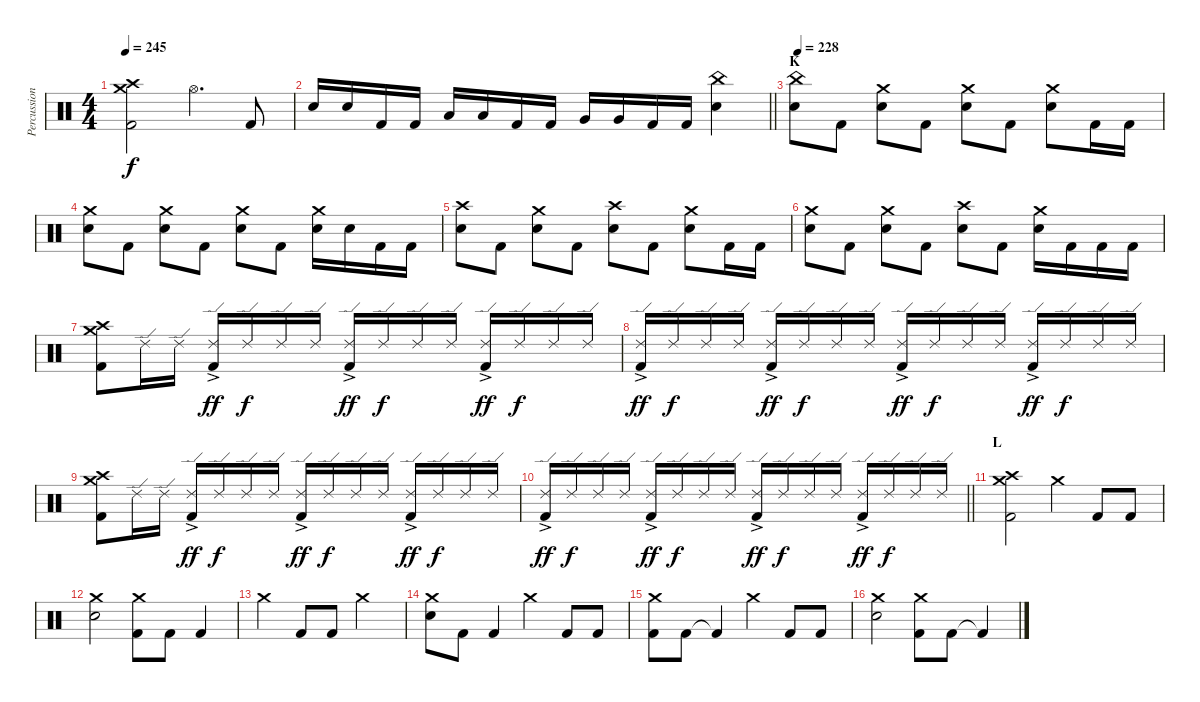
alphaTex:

\track ("Percussion" "Percussion") {instrument percussion}
\staff {score}
\articulation defaults
\ts (4 4)
\tempo 245
\clef neutral
\ks c
("Crash medium (hit)" "Crash high (hit)" "Kick (hit) 2").2{dy f} "Hi-Hat (open)".4{d} "Kick (hit) 2".8 |
\barLineRight lightlight "Electric Snare (hit)".16 "Electric Snare (hit)".16 "Kick (hit) 2".16 "Kick (hit) 2".16 "Low Tom (hit)".16 "Low Tom (hit)".16 "Kick (hit) 2".16 "Kick (hit) 2".16 "Very Low Tom (hit)".16 "Very Low Tom (hit)".16 "Kick (hit) 2".16 "Kick (hit) 2".16
("China (hit)" "Electric Snare (hit)").4 |
\section ("" "K")
\tempo 228
("China (hit)" "Electric Snare (hit)").8 "Kick (hit) 2".8 ("Crash medium (hit)" "Electric Snare (hit)").8 "Kick (hit) 2".8 ("Crash medium (hit)" "Electric Snare (hit)").8 "Kick (hit) 2".8 ("Crash medium (hit)" "Electric Snare (hit)").8 "Kick (hit) 2".16 "Kick (hit) 2".16 |
("Crash medium (hit)" "Electric Snare (hit)").8 "Kick (hit) 2".8 ("Crash medium (hit)" "Electric Snare (hit)").8 "Kick (hit) 2".8 ("Crash medium (hit)" "Electric Snare (hit)").8 "Kick (hit) 2".8 ("Crash medium (hit)" "Electric Snare (hit)").16 "Electric Snare (hit)".16 "Kick (hit) 2".16 "Kick (hit) 2".16 |
("Crash high (hit)" "Electric Snare (hit)").8 "Kick (hit) 2".8 ("Crash medium (hit)" "Electric Snare (hit)").8 "Kick (hit) 2".8 ("Crash high (hit)" "Electric Snare (hit)").8 "Kick (hit) 2".8 ("Crash medium (hit)" "Electric Snare (hit)").8 "Kick (hit) 2".16 "Kick (hit) 2".16 |
("Crash medium (hit)" "Electric Snare (hit)").8 "Kick (hit) 2".8 ("Crash medium (hit)" "Electric Snare (hit)").8 "Kick (hit) 2".8 ("Crash high (hit)" "Electric Snare (hit)").8 "Kick (hit) 2".8 ("Crash medium (hit)" "Electric Snare (hit)").16 "Kick (hit) 2".16 "Kick (hit) 2".16 "Kick (hit) 2".16 |
("Crash medium (hit)" "Crash high (hit)" "Kick (hit) 2").8 "Ride (edge) 2".16{volume 12} "Ride (edge) 2".16 ("Ride (edge) 2"{ac} "Kick (hit) 2").16{dy ff} "Ride (edge) 2".16{dy f} "Ride (edge) 2".16 "Ride (edge) 2".16 ("Ride (edge) 2"{ac} "Kick (hit) 2").16{dy ff} "Ride (edge) 2".16{dy f} "Ride (edge) 2".16 "Ride (edge) 2".16 ("Ride (edge) 2"{ac} "Kick (hit) 2").16{dy ff} "Ride (edge) 2".16{dy f} "Ride (edge) 2".16 "Ride (edge) 2".16 |
("Ride (edge) 2"{ac} "Kick (hit) 2").16{dy ff} "Ride (edge) 2".16{dy f} "Ride (edge) 2".16 "Ride (edge) 2".16 ("Ride (edge) 2"{ac} "Kick (hit) 2").16{dy ff} "Ride (edge) 2".16{dy f} "Ride (edge) 2".16 "Ride (edge) 2".16 ("Ride (edge) 2"{ac} "Kick (hit) 2").16{dy ff} "Ride (edge) 2".16{dy f} "Ride (edge) 2".16 "Ride (edge) 2".16 ("Ride (edge) 2"{ac} "Kick (hit) 2").16{dy ff} "Ride (edge) 2".16{dy f} "Ride (edge) 2".16 "Ride (edge) 2".16 |
("Crash medium (hit)" "Crash high (hit)" "Kick (hit) 2").8 "Ride (edge) 2".16 "Ride (edge) 2".16 ("Ride (edge) 2"{ac} "Kick (hit) 2").16{dy ff} "Ride (edge) 2".16{dy f} "Ride (edge) 2".16 "Ride (edge) 2".16 ("Ride (edge) 2"{ac} "Kick (hit) 2").16{dy ff} "Ride (edge) 2".16{dy f} "Ride (edge) 2".16 "Ride (edge) 2".16 ("Ride (edge) 2"{ac} "Kick (hit) 2").16{dy ff} "Ride (edge) 2".16{dy f} "Ride (edge) 2".16 "Ride (edge) 2".16 |
\barLineRight lightlight
("Ride (edge) 2"{ac} "Kick (hit) 2").16{dy ff} "Ride (edge) 2".16{dy f} "Ride (edge) 2".16 "Ride (edge) 2".16 ("Ride (edge) 2"{ac} "Kick (hit) 2").16{dy ff} "Ride (edge) 2".16{dy f} "Ride (edge) 2".16 "Ride (edge) 2".16 ("Ride (edge) 2"{ac} "Kick (hit) 2").16{dy ff} "Ride (edge) 2".16{dy f} "Ride (edge) 2".16 "Ride (edge) 2".16 ("Ride (edge) 2"{ac} "Kick (hit) 2").16{dy ff} "Ride (edge) 2".16{dy f} "Ride (edge) 2".16 "Ride (edge) 2".16 |
\section ("" "L")
("Crash medium (hit)" "Crash high (hit)" "Kick (hit) 2").2{volume 14} "Crash medium (hit)".4 "Kick (hit) 2".8 "Kick (hit) 2".8 |
("Crash medium (hit)" "Electric Snare (hit)").2 ("Crash medium (hit)" "Kick (hit) 2").8 "Kick (hit) 2".8 "Kick (hit) 2".4 |
"Crash medium (hit)".4 "Kick (hit) 2".8 "Kick (hit) 2".8 "Crash medium (hit)".2 |
("Crash medium (hit)" "Electric Snare (hit)").8 "Kick (hit) 2".8 "Kick (hit) 2".4 "Crash medium (hit)".4 "Kick (hit) 2".8 "Kick (hit) 2".8 |
("Crash medium (hit)" "Kick (hit) 2").8 "Kick (hit) 2".8 "Kick (hit) 2"{t}.4 "Crash medium (hit)".4 "Kick (hit) 2".8 "Kick (hit) 2".8 |
("Crash medium (hit)" "Electric Snare (hit)").2 ("Crash medium (hit)" "Kick (hit) 2").8 "Kick (hit) 2".8 "Kick (hit) 2"{t}.4
